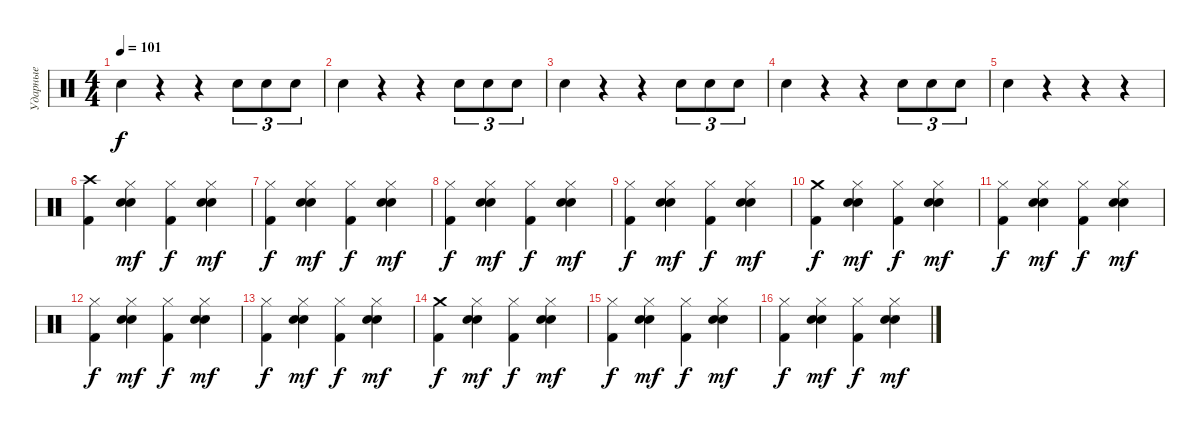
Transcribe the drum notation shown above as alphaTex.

\track ("Ударные" "Ударные") {instrument percussion}
\staff {score}
\articulation defaults
\ts (4 4)
\tempo 101
\clef neutral
\ks c "Snare (hit) 2".4{dy f}
r.4 r.4 "Snare (hit) 2".8{tu (3 2)} "Snare (hit) 2".8{tu (3 2)} "Snare (hit) 2".8{tu (3 2)} |
"Snare (hit) 2".4 r.4 r.4 "Snare (hit) 2".8{tu (3 2)} "Snare (hit) 2".8{tu (3 2)} "Snare (hit) 2".8{tu (3 2)} |
"Snare (hit) 2".4 r.4 r.4 "Snare (hit) 2".8{tu (3 2)} "Snare (hit) 2".8{tu (3 2)} "Snare (hit) 2".8{tu (3 2)} |
"Snare (hit) 2".4 r.4 r.4 "Snare (hit) 2".8{tu (3 2)} "Snare (hit) 2".8{tu (3 2)} "Snare (hit) 2".8{tu (3 2)} |
"Snare (hit) 2".4 r.4 r.4 r.4 |
("Kick (hit) 2" "Crash high (hit)").4 ("Electric Snare (hit)" "Hand Clap (hit)" "Hi-Hat (closed)").4{dy mf} ("Kick (hit) 2" "Hi-Hat (closed)").4{dy f} ("Electric Snare (hit)" "Hand Clap (hit)" "Hi-Hat (closed)").4{dy mf} |
("Kick (hit) 2" "Hi-Hat (closed)").4{dy f} ("Electric Snare (hit)" "Hand Clap (hit)" "Hi-Hat (closed)").4{dy mf} ("Kick (hit) 2" "Hi-Hat (closed)").4{dy f} ("Electric Snare (hit)" "Hand Clap (hit)" "Hi-Hat (closed)").4{dy mf} |
("Kick (hit) 2" "Hi-Hat (closed)").4{dy f} ("Electric Snare (hit)" "Hand Clap (hit)" "Hi-Hat (closed)").4{dy mf} ("Kick (hit) 2" "Hi-Hat (closed)").4{dy f} ("Electric Snare (hit)" "Hand Clap (hit)" "Hi-Hat (closed)").4{dy mf} |
("Kick (hit) 2" "Hi-Hat (closed)").4{dy f} ("Electric Snare (hit)" "Hand Clap (hit)" "Hi-Hat (closed)").4{dy mf} ("Kick (hit) 2" "Hi-Hat (closed)").4{dy f} ("Electric Snare (hit)" "Hand Clap (hit)" "Hi-Hat (closed)").4{dy mf} |
("Kick (hit) 2" "Crash medium (hit)").4{dy f} ("Electric Snare (hit)" "Hand Clap (hit)" "Hi-Hat (closed)").4{dy mf} ("Kick (hit) 2" "Hi-Hat (closed)").4{dy f} ("Electric Snare (hit)" "Hand Clap (hit)" "Hi-Hat (closed)").4{dy mf} |
("Kick (hit) 2" "Hi-Hat (closed)").4{dy f} ("Electric Snare (hit)" "Hand Clap (hit)" "Hi-Hat (closed)").4{dy mf} ("Kick (hit) 2" "Hi-Hat (closed)").4{dy f} ("Electric Snare (hit)" "Hand Clap (hit)" "Hi-Hat (closed)").4{dy mf} |
("Kick (hit) 2" "Hi-Hat (closed)").4{dy f} ("Electric Snare (hit)" "Hand Clap (hit)" "Hi-Hat (closed)").4{dy mf} ("Kick (hit) 2" "Hi-Hat (closed)").4{dy f} ("Electric Snare (hit)" "Hand Clap (hit)" "Hi-Hat (closed)").4{dy mf} |
("Kick (hit) 2" "Hi-Hat (closed)").4{dy f} ("Electric Snare (hit)" "Hand Clap (hit)" "Hi-Hat (closed)").4{dy mf} ("Kick (hit) 2" "Hi-Hat (closed)").4{dy f} ("Electric Snare (hit)" "Hand Clap (hit)" "Hi-Hat (closed)").4{dy mf} |
("Kick (hit) 2" "Crash medium (hit)").4{dy f} ("Electric Snare (hit)" "Hand Clap (hit)" "Hi-Hat (closed)").4{dy mf} ("Kick (hit) 2" "Hi-Hat (closed)").4{dy f} ("Electric Snare (hit)" "Hand Clap (hit)" "Hi-Hat (closed)").4{dy mf} |
("Kick (hit) 2" "Hi-Hat (closed)").4{dy f} ("Electric Snare (hit)" "Hand Clap (hit)" "Hi-Hat (closed)").4{dy mf} ("Kick (hit) 2" "Hi-Hat (closed)").4{dy f} ("Electric Snare (hit)" "Hand Clap (hit)" "Hi-Hat (closed)").4{dy mf} |
("Kick (hit) 2" "Hi-Hat (closed)").4{dy f} ("Electric Snare (hit)" "Hand Clap (hit)" "Hi-Hat (closed)").4{dy mf} ("Kick (hit) 2" "Hi-Hat (closed)").4{dy f} ("Electric Snare (hit)" "Hand Clap (hit)" "Hi-Hat (closed)").4{dy mf}
